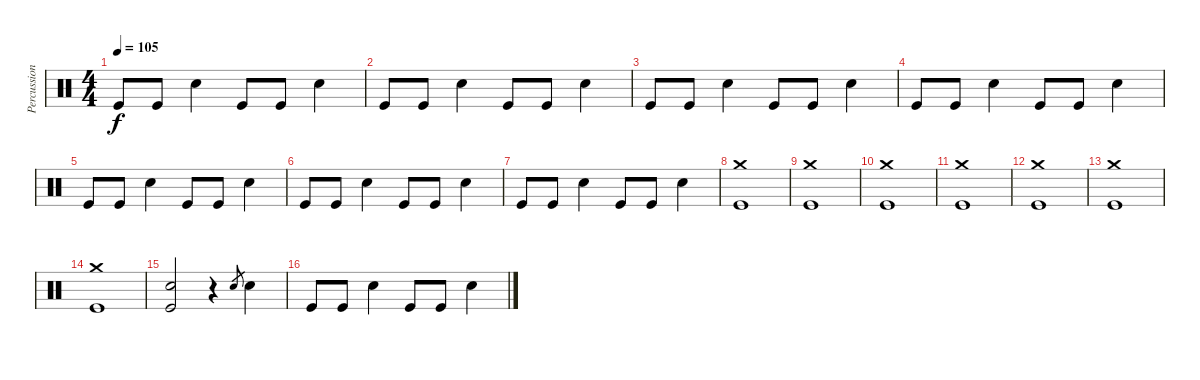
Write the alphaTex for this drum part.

\track ("Percussions" "Percussion") {instrument percussion}
\staff {score}
\articulation defaults
\ts (4 4)
\tempo 105
\clef neutral
\ks c "Kick (hit)".8{dy f} "Kick (hit)".8 "Electric Snare (hit)".4 "Kick (hit)".8 "Kick (hit)".8 "Electric Snare (hit)".4
|
"Kick (hit)".8 "Kick (hit)".8 "Electric Snare (hit)".4 "Kick (hit)".8 "Kick (hit)".8 "Electric Snare (hit)".4 |
"Kick (hit)".8 "Kick (hit)".8 "Electric Snare (hit)".4 "Kick (hit)".8 "Kick (hit)".8 "Electric Snare (hit)".4 |
"Kick (hit)".8 "Kick (hit)".8 "Electric Snare (hit)".4 "Kick (hit)".8 "Kick (hit)".8 "Electric Snare (hit)".4 |
"Kick (hit)".8 "Kick (hit)".8 "Electric Snare (hit)".4 "Kick (hit)".8 "Kick (hit)".8 "Electric Snare (hit)".4 |
"Kick (hit)".8 "Kick (hit)".8 "Electric Snare (hit)".4 "Kick (hit)".8 "Kick (hit)".8 "Electric Snare (hit)".4 |
"Kick (hit)".8 "Kick (hit)".8 "Electric Snare (hit)".4 "Kick (hit)".8 "Kick (hit)".8 "Electric Snare (hit)".4 |
("Crash medium (hit)" "Kick (hit)").1 |
("Crash medium (hit)" "Kick (hit)").1 |
("Crash medium (hit)" "Kick (hit)").1 |
("Crash medium (hit)" "Kick (hit)").1 |
("Crash medium (hit)" "Kick (hit)").1 |
("Crash medium (hit)" "Kick (hit)").1 |
("Crash medium (hit)" "Kick (hit)").1 |
("Electric Snare (hit)" "Kick (hit)").2 r.4 "Electric Snare (hit)".8{gr} "Electric Snare (hit)".4 |
"Kick (hit)".8 "Kick (hit)".8 "Electric Snare (hit)".4 "Kick (hit)".8 "Kick (hit)".8 "Electric Snare (hit)".4
